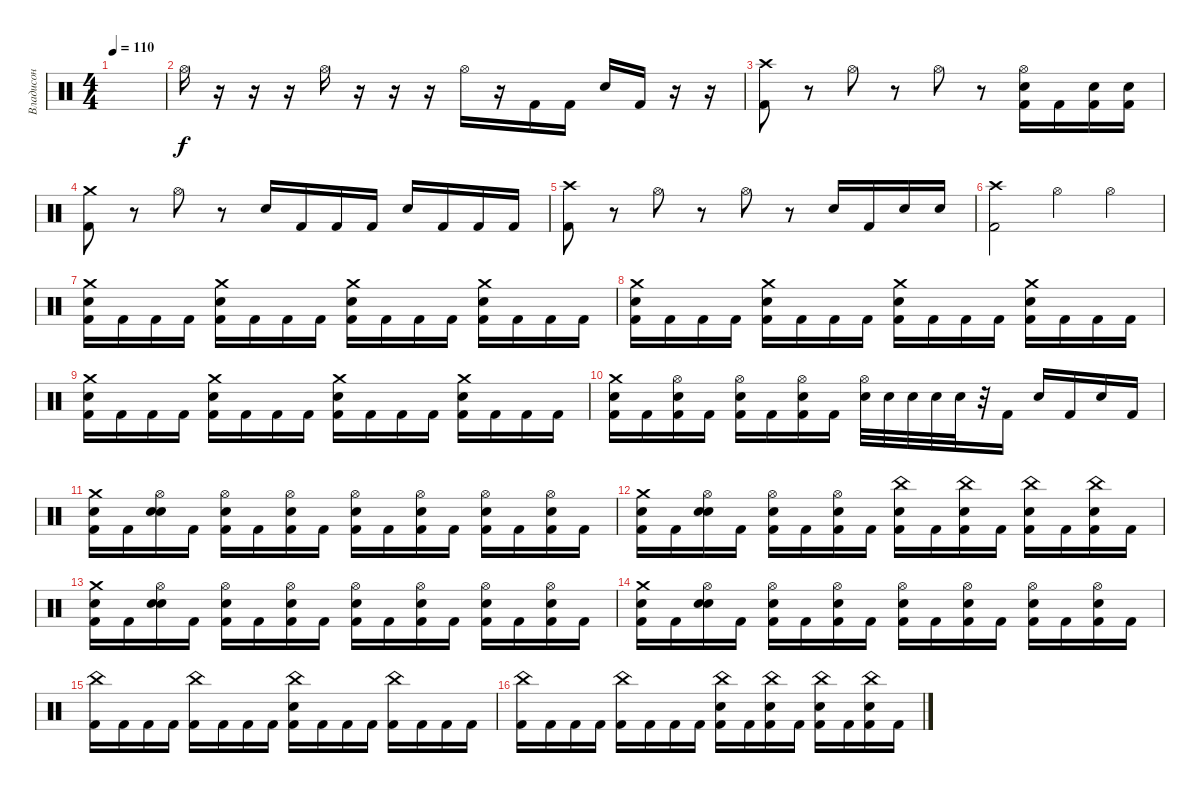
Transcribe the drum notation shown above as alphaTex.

\track ("Владисон" "Владисон") {instrument percussion}
\staff
\articulation defaults
\ts (4 4)
\tempo 110
\clef neutral
\ks c
|
"Hi-Hat (open)".16 r.16 r.16 r.16 "Hi-Hat (open)".16 r.16 r.16 r.16 "Hi-Hat (open)".16 r.16 "Kick (hit) 2".16 "Kick (hit) 2".16 "Snare (hit) 2".16 "Kick (hit) 2".16 r.16 r.16 |
("Crash high (hit)" "Kick (hit) 2").8 r.8 "Hi-Hat (open)".8 r.8 "Hi-Hat (open)".8 r.8 ("Hi-Hat (open)" "Snare (hit) 2" "Kick (hit) 2").16 "Kick (hit) 2".16 ("Snare (hit) 2" "Kick (hit) 2").16 ("Snare (hit) 2" "Kick (hit) 2").16 |
("Crash medium (hit)" "Kick (hit) 2").8 r.8 "Hi-Hat (open)".8 r.8 "Snare (hit) 2".16 "Kick (hit) 2".16 "Kick (hit) 2".16 "Kick (hit) 2".16 "Snare (hit) 2".16 "Kick (hit) 2".16 "Kick (hit) 2".16 "Kick (hit) 2".16 |
("Crash high (hit)" "Kick (hit) 2").8 r.8 "Hi-Hat (open)".8 r.8 "Hi-Hat (open)".8 r.8 "Snare (hit) 2".16 "Kick (hit) 2".16 "Snare (hit) 2".16 "Snare (hit) 2".16 |
("Crash high (hit)" "Kick (hit) 2").2 "Hi-Hat (open)".4 "Hi-Hat (open)".4 |
("Crash medium (hit)" "Snare (hit) 2" "Kick (hit) 2").16 "Kick (hit) 2".16 "Kick (hit) 2".16 "Kick (hit) 2".16 ("Crash medium (hit)" "Snare (hit) 2" "Kick (hit) 2").16 "Kick (hit) 2".16 "Kick (hit) 2".16 "Kick (hit) 2".16 ("Crash medium (hit)" "Snare (hit) 2" "Kick (hit) 2").16 "Kick (hit) 2".16 "Kick (hit) 2".16 "Kick (hit) 2".16 ("Crash medium (hit)" "Snare (hit) 2" "Kick (hit) 2").16 "Kick (hit) 2".16 "Kick (hit) 2".16 "Kick (hit) 2".16 |
("Crash medium (hit)" "Snare (hit) 2" "Kick (hit) 2").16 "Kick (hit) 2".16 "Kick (hit) 2".16 "Kick (hit) 2".16 ("Crash medium (hit)" "Snare (hit) 2" "Kick (hit) 2").16 "Kick (hit) 2".16 "Kick (hit) 2".16 "Kick (hit) 2".16 ("Crash medium (hit)" "Snare (hit) 2" "Kick (hit) 2").16 "Kick (hit) 2".16 "Kick (hit) 2".16 "Kick (hit) 2".16 ("Crash medium (hit)" "Snare (hit) 2" "Kick (hit) 2").16 "Kick (hit) 2".16 "Kick (hit) 2".16 "Kick (hit) 2".16 |
("Crash medium (hit)" "Snare (hit) 2" "Kick (hit) 2").16 "Kick (hit) 2".16 "Kick (hit) 2".16 "Kick (hit) 2".16 ("Crash medium (hit)" "Snare (hit) 2" "Kick (hit) 2").16 "Kick (hit) 2".16 "Kick (hit) 2".16 "Kick (hit) 2".16 ("Crash medium (hit)" "Snare (hit) 2" "Kick (hit) 2").16 "Kick (hit) 2".16 "Kick (hit) 2".16 "Kick (hit) 2".16 ("Crash medium (hit)" "Snare (hit) 2" "Kick (hit) 2").16 "Kick (hit) 2".16 "Kick (hit) 2".16 "Kick (hit) 2".16 |
("Crash medium (hit)" "Snare (hit) 2" "Kick (hit) 2").16 "Kick (hit) 2".16 ("Hi-Hat (open)" "Snare (hit) 2" "Kick (hit) 2").16 "Kick (hit) 2".16 ("Hi-Hat (open)" "Snare (hit) 2" "Kick (hit) 2").16 "Kick (hit) 2".16 ("Hi-Hat (open)" "Snare (hit) 2" "Kick (hit) 2").16 "Kick (hit) 2".16 ("Hi-Hat (open)" "Snare (hit) 2").32 "Snare (hit) 2".32 "Snare (hit) 2".32 "Snare (hit) 2".32 "Snare (hit) 2".32 r.32 "Kick (hit) 2".16 "Snare (hit) 2".16 "Kick (hit) 2".16 "Snare (hit) 2".16 "Kick (hit) 2".16 |
("Crash medium (hit)" "Snare (hit) 2" "Kick (hit) 2").16 "Kick (hit) 2".16 ("Hi-Hat (open)" "Snare (hit) 2" "Snare (hit) 2").16 "Kick (hit) 2".16 ("Hi-Hat (open)" "Snare (hit) 2" "Kick (hit) 2").16 "Kick (hit) 2".16 ("Hi-Hat (open)" "Snare (hit) 2" "Kick (hit) 2").16 "Kick (hit) 2".16 ("Hi-Hat (open)" "Snare (hit) 2" "Kick (hit) 2").16 "Kick (hit) 2".16 ("Hi-Hat (open)" "Snare (hit) 2" "Kick (hit) 2").16 "Kick (hit) 2".16 ("Hi-Hat (open)" "Snare (hit) 2" "Kick (hit) 2").16 "Kick (hit) 2".16 ("Hi-Hat (open)" "Snare (hit) 2" "Kick (hit) 2").16 "Kick (hit) 2".16 |
("Crash medium (hit)" "Snare (hit) 2" "Kick (hit) 2").16 "Kick (hit) 2".16 ("Hi-Hat (open)" "Snare (hit) 2" "Snare (hit) 2").16 "Kick (hit) 2".16 ("Hi-Hat (open)" "Snare (hit) 2" "Kick (hit) 2").16 "Kick (hit) 2".16 ("Hi-Hat (open)" "Snare (hit) 2" "Kick (hit) 2").16 "Kick (hit) 2".16 ("China (hit)" "Snare (hit) 2" "Kick (hit) 2").16 "Kick (hit) 2".16 ("China (hit)" "Snare (hit) 2" "Kick (hit) 2").16 "Kick (hit) 2".16 ("China (hit)" "Snare (hit) 2" "Kick (hit) 2").16 "Kick (hit) 2".16 ("China (hit)" "Snare (hit) 2" "Kick (hit) 2").16 "Kick (hit) 2".16 |
("Crash medium (hit)" "Snare (hit) 2" "Kick (hit) 2").16 "Kick (hit) 2".16 ("Hi-Hat (open)" "Snare (hit) 2" "Snare (hit) 2").16 "Kick (hit) 2".16 ("Hi-Hat (open)" "Snare (hit) 2" "Kick (hit) 2").16 "Kick (hit) 2".16 ("Hi-Hat (open)" "Snare (hit) 2" "Kick (hit) 2").16 "Kick (hit) 2".16 ("Hi-Hat (open)" "Snare (hit) 2" "Kick (hit) 2").16 "Kick (hit) 2".16 ("Hi-Hat (open)" "Snare (hit) 2" "Kick (hit) 2").16 "Kick (hit) 2".16 ("Hi-Hat (open)" "Snare (hit) 2" "Kick (hit) 2").16 "Kick (hit) 2".16 ("Hi-Hat (open)" "Snare (hit) 2" "Kick (hit) 2").16 "Kick (hit) 2".16 |
("Crash medium (hit)" "Snare (hit) 2" "Kick (hit) 2").16 "Kick (hit) 2".16 ("Hi-Hat (open)" "Snare (hit) 2" "Snare (hit) 2").16 "Kick (hit) 2".16 ("Hi-Hat (open)" "Snare (hit) 2" "Kick (hit) 2").16 "Kick (hit) 2".16 ("Hi-Hat (open)" "Snare (hit) 2" "Kick (hit) 2").16 "Kick (hit) 2".16 ("Hi-Hat (open)" "Snare (hit) 2" "Kick (hit) 2").16 "Kick (hit) 2".16 ("Hi-Hat (open)" "Snare (hit) 2" "Kick (hit) 2").16 "Kick (hit) 2".16 ("Hi-Hat (open)" "Snare (hit) 2" "Kick (hit) 2").16 "Kick (hit) 2".16 ("Hi-Hat (open)" "Snare (hit) 2" "Kick (hit) 2").16 "Kick (hit) 2".16 |
("China (hit)" "Kick (hit) 2").16 "Kick (hit) 2".16 "Kick (hit) 2".16 "Kick (hit) 2".16 ("China (hit)" "Kick (hit) 2").16 "Kick (hit) 2".16 "Kick (hit) 2".16 "Kick (hit) 2".16 ("China (hit)" "Snare (hit) 2" "Kick (hit) 2").16 "Kick (hit) 2".16 "Kick (hit) 2".16 "Kick (hit) 2".16 ("China (hit)" "Kick (hit) 2").16 "Kick (hit) 2".16 "Kick (hit) 2".16 "Kick (hit) 2".16 |
("China (hit)" "Kick (hit) 2").16 "Kick (hit) 2".16 "Kick (hit) 2".16 "Kick (hit) 2".16 ("China (hit)" "Kick (hit) 2").16 "Kick (hit) 2".16 "Kick (hit) 2".16 "Kick (hit) 2".16 ("China (hit)" "Snare (hit) 2" "Kick (hit) 2").16 "Kick (hit) 2".16 ("China (hit)" "Snare (hit) 2" "Kick (hit) 2").16 "Kick (hit) 2".16 ("China (hit)" "Snare (hit) 2" "Kick (hit) 2").16 "Kick (hit) 2".16 ("China (hit)" "Snare (hit) 2" "Kick (hit) 2").16 "Kick (hit) 2".16
